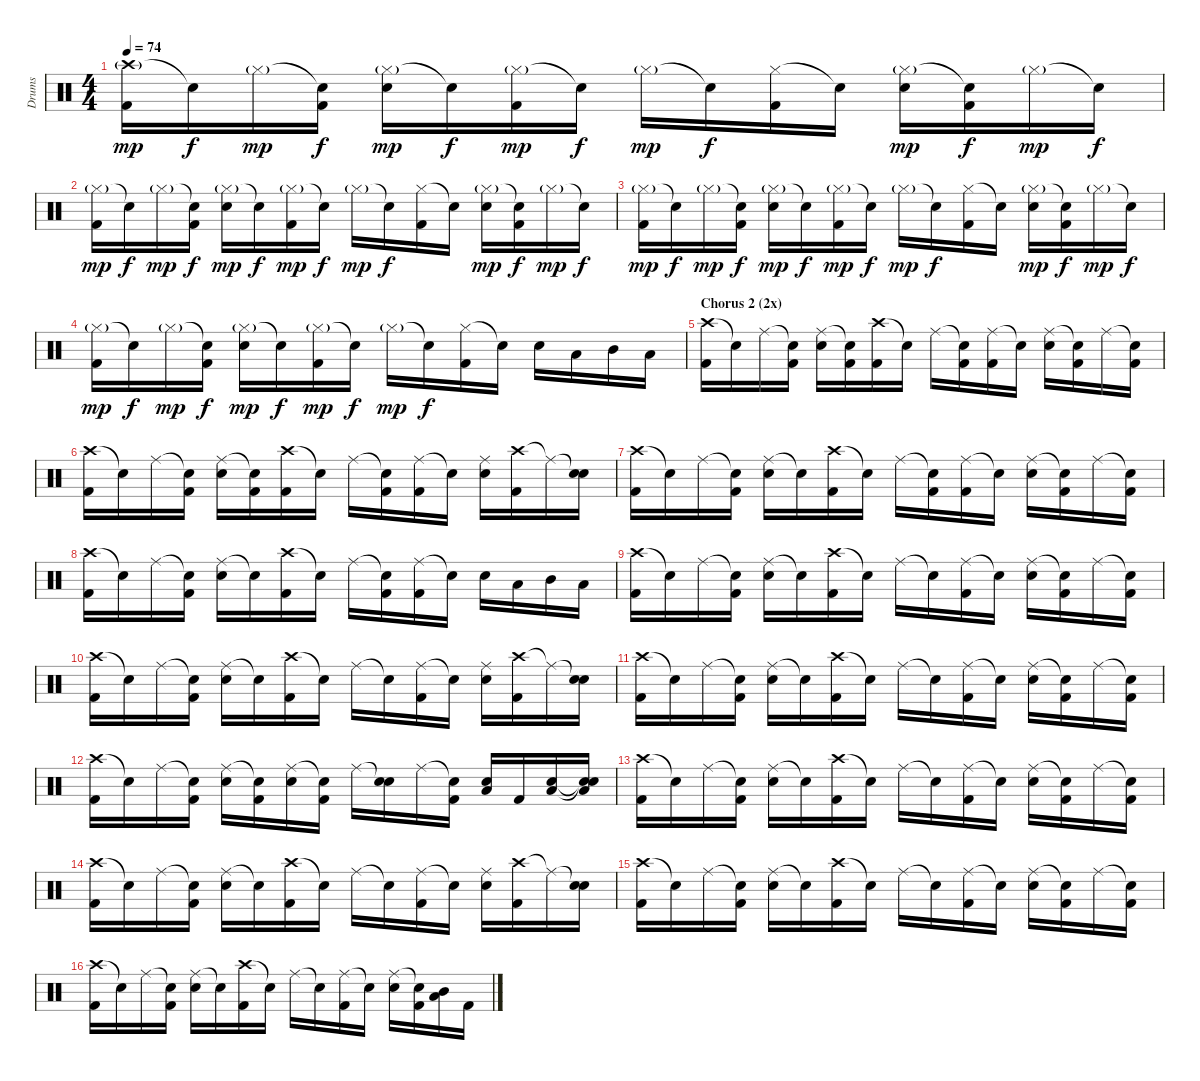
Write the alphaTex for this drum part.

\track ("Drums" "Drums") {instrument percussion}
\staff {score}
\articulation defaults
\ts (4 4)
\tempo 74
\clef neutral
\ks c
("Crash high (hit)"{g} "Kick (hit) 2").16{dy mp} "Snare (hit)"{t}.16{dy f} "Hi-Hat (closed)"{g}.16{dy mp} ("Snare (hit)"{t} "Kick (hit) 2").16{dy f} ("Hi-Hat (closed)"{g} "Electric Snare (hit)").16{dy mp} "Snare (hit)"{t}.16{dy f} ("Hi-Hat (closed)"{g} "Kick (hit) 2").16{dy mp} "Snare (hit)"{t}.16{dy f} "Hi-Hat (closed)"{g}.16{dy mp} "Snare (hit)"{t}.16{dy f} ("Hi-Hat (closed)" "Kick (hit) 2").16 "Snare (hit)"{t}.16 ("Hi-Hat (closed)"{g} "Electric Snare (hit)").16{dy mp} ("Snare (hit)"{t} "Kick (hit) 2").16{dy f} "Hi-Hat (closed)"{g}.16{dy mp} "Snare (hit)"{t}.16{dy f} |
("Hi-Hat (closed)"{g} "Kick (hit) 2").16{dy mp} "Snare (hit)"{t}.16{dy f} "Hi-Hat (closed)"{g}.16{dy mp} ("Snare (hit)"{t} "Kick (hit) 2").16{dy f} ("Hi-Hat (closed)"{g} "Electric Snare (hit)").16{dy mp} "Snare (hit)"{t}.16{dy f} ("Hi-Hat (closed)"{g} "Kick (hit) 2").16{dy mp} "Snare (hit)"{t}.16{dy f} "Hi-Hat (closed)"{g}.16{dy mp} "Snare (hit)"{t}.16{dy f} ("Hi-Hat (closed)" "Kick (hit) 2").16 "Snare (hit)"{t}.16 ("Hi-Hat (closed)"{g} "Electric Snare (hit)").16{dy mp} ("Snare (hit)"{t} "Kick (hit) 2").16{dy f} "Hi-Hat (closed)"{g}.16{dy mp} "Snare (hit)"{t}.16{dy f} |
("Hi-Hat (closed)"{g} "Kick (hit) 2").16{dy mp} "Snare (hit)"{t}.16{dy f} "Hi-Hat (closed)"{g}.16{dy mp} ("Snare (hit)"{t} "Kick (hit) 2").16{dy f} ("Hi-Hat (closed)"{g} "Electric Snare (hit)").16{dy mp} "Snare (hit)"{t}.16{dy f} ("Hi-Hat (closed)"{g} "Kick (hit) 2").16{dy mp} "Snare (hit)"{t}.16{dy f} "Hi-Hat (closed)"{g}.16{dy mp} "Snare (hit)"{t}.16{dy f} ("Hi-Hat (closed)" "Kick (hit) 2").16 "Snare (hit)"{t}.16 ("Hi-Hat (closed)"{g} "Electric Snare (hit)").16{dy mp} ("Snare (hit)"{t} "Kick (hit) 2").16{dy f} "Hi-Hat (closed)"{g}.16{dy mp} "Snare (hit)"{t}.16{dy f} |
("Hi-Hat (closed)"{g} "Kick (hit) 2").16{dy mp} "Snare (hit)"{t}.16{dy f} "Hi-Hat (closed)"{g}.16{dy mp} ("Snare (hit)"{t} "Kick (hit) 2").16{dy f} ("Hi-Hat (closed)"{g} "Electric Snare (hit)").16{dy mp} "Snare (hit)"{t}.16{dy f} ("Hi-Hat (closed)"{g} "Kick (hit) 2").16{dy mp} "Snare (hit)"{t}.16{dy f} "Hi-Hat (closed)"{g}.16{dy mp} "Snare (hit)"{t}.16{dy f} ("Hi-Hat (closed)" "Kick (hit) 2").16 "Snare (hit)"{t}.16 "Electric Snare (hit)".16 "Low Tom (hit)".16 "Mid Tom (hit)".16 "Low Floor Tom (hit)".16 |
\section ("" "Chorus 2 (2x)")
("Crash high (hit)" "Kick (hit) 2").16 "Snare (hit)"{t}.16 "Ride (middle)".16 ("Snare (hit)"{t} "Kick (hit) 2").16 ("Ride (middle)" "Electric Snare (hit)").16 ("Snare (hit)"{t} "Kick (hit) 2").16 ("Crash high (hit)" "Kick (hit) 2").16 "Snare (hit)"{t}.16 "Ride (middle)".16 ("Snare (hit)"{t} "Kick (hit) 2").16 ("Ride (middle)" "Kick (hit) 2").16 "Snare (hit)"{t}.16 ("Ride (middle)" "Electric Snare (hit)").16 ("Snare (hit)"{t} "Kick (hit) 2").16 "Ride (middle)".16 ("Snare (hit)"{t} "Kick (hit) 2").16 |
("Crash high (hit)" "Kick (hit) 2").16 "Snare (hit)"{t}.16 "Ride (middle)".16 ("Snare (hit)"{t} "Kick (hit) 2").16 ("Ride (middle)" "Electric Snare (hit)").16 ("Snare (hit)"{t} "Kick (hit) 2").16 ("Crash high (hit)" "Kick (hit) 2").16 "Snare (hit)"{t}.16 "Ride (middle)".16 ("Snare (hit)"{t} "Kick (hit) 2").16 ("Ride (middle)" "Kick (hit) 2").16 "Snare (hit)"{t}.16 ("Ride (middle)" "Electric Snare (hit)").16 ("Crash high (hit)" "Kick (hit) 2").16 "Ride (middle)"{t}.16 ("Snare (hit)"{t} "Electric Snare (hit)").16 |
("Crash high (hit)" "Kick (hit) 2").16 "Snare (hit)"{t}.16 "Ride (middle)".16 ("Snare (hit)"{t} "Kick (hit) 2").16 ("Ride (middle)" "Electric Snare (hit)").16 "Snare (hit)"{t}.16 ("Crash high (hit)" "Kick (hit) 2").16 "Snare (hit)"{t}.16 "Ride (middle)".16 ("Snare (hit)"{t} "Kick (hit) 2").16 ("Ride (middle)" "Kick (hit) 2").16 "Snare (hit)"{t}.16 ("Ride (middle)" "Electric Snare (hit)").16 ("Snare (hit)"{t} "Kick (hit) 2").16 "Ride (middle)".16 ("Snare (hit)"{t} "Kick (hit) 2").16 |
("Crash high (hit)" "Kick (hit) 2").16 "Snare (hit)"{t}.16 "Ride (middle)".16 ("Snare (hit)"{t} "Kick (hit) 2").16 ("Ride (middle)" "Electric Snare (hit)").16 "Snare (hit)"{t}.16 ("Crash high (hit)" "Kick (hit) 2").16 "Snare (hit)"{t}.16 "Ride (middle)".16 ("Snare (hit)"{t} "Kick (hit) 2").16 ("Ride (middle)" "Kick (hit) 2").16 "Snare (hit)"{t}.16 "Electric Snare (hit)".16 "Low Tom (hit)".16 "Mid Tom (hit)".16 "Low Floor Tom (hit)".16 |
("Crash high (hit)" "Kick (hit) 2").16 "Snare (hit)"{t}.16 "Ride (middle)".16 ("Snare (hit)"{t} "Kick (hit) 2").16 ("Ride (middle)" "Electric Snare (hit)").16 "Snare (hit)"{t}.16 ("Crash high (hit)" "Kick (hit) 2").16 "Snare (hit)"{t}.16 "Ride (middle)".16 "Snare (hit)"{t}.16 ("Ride (middle)" "Kick (hit) 2").16 "Snare (hit)"{t}.16 ("Ride (middle)" "Electric Snare (hit)").16 ("Snare (hit)"{t} "Kick (hit) 2").16 "Ride (middle)".16 ("Snare (hit)"{t} "Kick (hit) 2").16 |
("Crash high (hit)" "Kick (hit) 2").16 "Snare (hit)"{t}.16 "Ride (middle)".16 ("Snare (hit)"{t} "Kick (hit) 2").16 ("Ride (middle)" "Electric Snare (hit)").16 "Snare (hit)"{t}.16 ("Crash high (hit)" "Kick (hit) 2").16 "Snare (hit)"{t}.16 "Ride (middle)".16 "Snare (hit)"{t}.16 ("Ride (middle)" "Kick (hit) 2").16 "Snare (hit)"{t}.16 ("Ride (middle)" "Electric Snare (hit)").16 ("Crash high (hit)" "Kick (hit) 2").16 "Ride (middle)"{t}.16 ("Snare (hit)"{t} "Electric Snare (hit)").16 |
("Crash high (hit)" "Kick (hit) 2").16 "Snare (hit)"{t}.16 "Ride (middle)".16 ("Snare (hit)"{t} "Kick (hit) 2").16 ("Ride (middle)" "Electric Snare (hit)").16 "Snare (hit)"{t}.16 ("Crash high (hit)" "Kick (hit) 2").16 "Snare (hit)"{t}.16 "Ride (middle)".16 "Snare (hit)"{t}.16 ("Ride (middle)" "Kick (hit) 2").16 "Snare (hit)"{t}.16 ("Ride (middle)" "Electric Snare (hit)").16 ("Snare (hit)"{t} "Kick (hit) 2").16 "Ride (middle)".16 ("Snare (hit)"{t} "Kick (hit) 2").16 |
("Crash high (hit)" "Kick (hit) 2").16 "Snare (hit)"{t}.16 "Ride (middle)".16 ("Snare (hit)"{t} "Kick (hit) 2").16 ("Ride (middle)" "Electric Snare (hit)").16 ("Snare (hit)"{t} "Kick (hit) 2").16 ("Ride (middle)" "Electric Snare (hit)").16 ("Snare (hit)"{t} "Kick (hit) 2").16 "Ride (middle)".16 ("Snare (hit)"{t} "Electric Snare (hit)").16 "Ride (middle)".16 ("Snare (hit)"{t} "Kick (hit) 2").16 ("Electric Snare (hit)" "Low Floor Tom (hit)").16 "Kick (hit) 2".16 ("Electric Snare (hit)" "Low Floor Tom (hit)").16 ("Snare (hit)"{t} "Snare (hit)"{t} "Low Floor Tom (hit)").16 |
("Crash high (hit)" "Kick (hit) 2").16 "Snare (hit)"{t}.16 "Ride (middle)".16 ("Snare (hit)"{t} "Kick (hit) 2").16 ("Ride (middle)" "Electric Snare (hit)").16 "Snare (hit)"{t}.16 ("Crash high (hit)" "Kick (hit) 2").16 "Snare (hit)"{t}.16 "Ride (middle)".16 "Snare (hit)"{t}.16 ("Ride (middle)" "Kick (hit) 2").16 "Snare (hit)"{t}.16 ("Ride (middle)" "Electric Snare (hit)").16 ("Snare (hit)"{t} "Kick (hit) 2").16 "Ride (middle)".16 ("Snare (hit)"{t} "Kick (hit) 2").16 |
("Crash high (hit)" "Kick (hit) 2").16 "Snare (hit)"{t}.16 "Ride (middle)".16 ("Snare (hit)"{t} "Kick (hit) 2").16 ("Ride (middle)" "Electric Snare (hit)").16 "Snare (hit)"{t}.16 ("Crash high (hit)" "Kick (hit) 2").16 "Snare (hit)"{t}.16 "Ride (middle)".16 "Snare (hit)"{t}.16 ("Ride (middle)" "Kick (hit) 2").16 "Snare (hit)"{t}.16 ("Ride (middle)" "Electric Snare (hit)").16 ("Crash high (hit)" "Kick (hit) 2").16 "Ride (middle)"{t}.16 ("Snare (hit)"{t} "Electric Snare (hit)").16 |
("Crash high (hit)" "Kick (hit) 2").16 "Snare (hit)"{t}.16 "Ride (middle)".16 ("Snare (hit)"{t} "Kick (hit) 2").16 ("Ride (middle)" "Electric Snare (hit)").16 "Snare (hit)"{t}.16 ("Crash high (hit)" "Kick (hit) 2").16 "Snare (hit)"{t}.16 "Ride (middle)".16 "Snare (hit)"{t}.16 ("Ride (middle)" "Kick (hit) 2").16 "Snare (hit)"{t}.16 ("Ride (middle)" "Electric Snare (hit)").16 ("Snare (hit)"{t} "Kick (hit) 2").16 "Ride (middle)".16 ("Snare (hit)"{t} "Kick (hit) 2").16 |
("Crash high (hit)" "Kick (hit) 2").16 "Snare (hit)"{t}.16 "Ride (middle)".16 ("Snare (hit)"{t} "Kick (hit) 2").16 ("Ride (middle)" "Electric Snare (hit)").16 "Snare (hit)"{t}.16 ("Crash high (hit)" "Kick (hit) 2").16 "Snare (hit)"{t}.16 "Ride (middle)".16 "Snare (hit)"{t}.16 ("Ride (middle)" "Kick (hit) 2").16 "Snare (hit)"{t}.16 ("Ride (middle)" "Electric Snare (hit)").16 ("Snare (hit)"{t} "Kick (hit) 2").16 ("Mid Tom (hit)" "Low Floor Tom (hit)").16 "Kick (hit) 2".16
